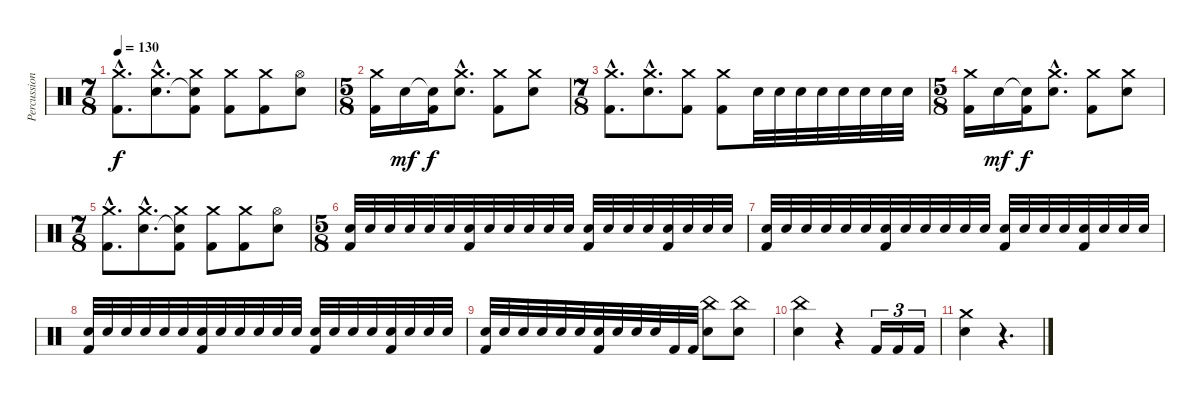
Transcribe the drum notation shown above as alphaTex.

\track ("Percussion" "Percussion") {instrument percussion}
\staff {score}
\articulation defaults
\ts (7 8)
\tempo 130
\clef neutral
\ks c
("Crash medium (hit)"{hac} "Kick (hit) 2"{hac}).8{d dy f} ("Crash medium (hit)"{hac} "Electric Snare (hit)"{hac}).8{d} ("Crash medium (hit)" "Electric Snare (hit)"{t} "Kick (hit) 2").8 ("Crash medium (hit)" "Kick (hit) 2").8 ("Kick (hit) 2" "Crash medium (hit)").8 ("Hi-Hat (open)" "Electric Snare (hit)").8 |
\ts (5 8)
("Crash medium (hit)" "Kick (hit) 2").16 "Electric Snare (hit)".16{dy mf} ("Electric Snare (hit)"{t} "Kick (hit) 2").16{dy f} ("Crash medium (hit)"{hac} "Electric Snare (hit)"{hac}).8{d} ("Crash medium (hit)" "Kick (hit) 2").8 ("Electric Snare (hit)" "Crash medium (hit)").8 |
\ts (7 8)
("Crash medium (hit)"{hac} "Kick (hit) 2"{hac}).8{d} ("Crash medium (hit)"{hac} "Electric Snare (hit)"{hac}).8{d} ("Crash medium (hit)" "Kick (hit) 2").8 ("Crash medium (hit)" "Kick (hit) 2").8 "Electric Snare (hit)".32 "Electric Snare (hit)".32 "Electric Snare (hit)".32 "Electric Snare (hit)".32 "Electric Snare (hit)".32 "Electric Snare (hit)".32 "Electric Snare (hit)".32 "Electric Snare (hit)".32 |
\ts (5 8)
("Crash medium (hit)" "Kick (hit) 2").16 "Electric Snare (hit)".16{dy mf} ("Electric Snare (hit)"{t} "Kick (hit) 2").16{dy f} ("Crash medium (hit)"{hac} "Electric Snare (hit)"{hac}).8{d} ("Crash medium (hit)" "Kick (hit) 2").8 ("Electric Snare (hit)" "Crash medium (hit)").8 |
\ts (7 8)
("Crash medium (hit)"{hac} "Kick (hit) 2"{hac}).8{d} ("Crash medium (hit)"{hac} "Electric Snare (hit)"{hac}).8{d} ("Crash medium (hit)" "Electric Snare (hit)"{t} "Kick (hit) 2").8 ("Crash medium (hit)" "Kick (hit) 2").8 ("Kick (hit) 2" "Crash medium (hit)").8 ("Hi-Hat (open)" "Electric Snare (hit)").8 |
\ts (5 8)
("Kick (hit) 2" "Electric Snare (hit)").32 "Electric Snare (hit)".32 "Electric Snare (hit)".32 "Electric Snare (hit)".32 "Electric Snare (hit)".32 "Electric Snare (hit)".32 ("Kick (hit) 2" "Electric Snare (hit)").32 "Electric Snare (hit)".32 "Electric Snare (hit)".32 "Electric Snare (hit)".32 "Electric Snare (hit)".32 "Electric Snare (hit)".32 ("Kick (hit) 2" "Electric Snare (hit)").32 "Electric Snare (hit)".32 "Electric Snare (hit)".32 "Electric Snare (hit)".32 ("Kick (hit) 2" "Electric Snare (hit)").32 "Electric Snare (hit)".32 "Electric Snare (hit)".32 "Electric Snare (hit)".32 |
("Kick (hit) 2" "Electric Snare (hit)").32 "Electric Snare (hit)".32 "Electric Snare (hit)".32 "Electric Snare (hit)".32 "Electric Snare (hit)".32 "Electric Snare (hit)".32 ("Kick (hit) 2" "Electric Snare (hit)").32 "Electric Snare (hit)".32 "Electric Snare (hit)".32 "Electric Snare (hit)".32 "Electric Snare (hit)".32 "Electric Snare (hit)".32 ("Kick (hit) 2" "Electric Snare (hit)").32 "Electric Snare (hit)".32 "Electric Snare (hit)".32 "Electric Snare (hit)".32 ("Kick (hit) 2" "Electric Snare (hit)").32 "Electric Snare (hit)".32 "Electric Snare (hit)".32 "Electric Snare (hit)".32 |
("Kick (hit) 2" "Electric Snare (hit)").32 "Electric Snare (hit)".32 "Electric Snare (hit)".32 "Electric Snare (hit)".32 "Electric Snare (hit)".32 "Electric Snare (hit)".32 ("Kick (hit) 2" "Electric Snare (hit)").32 "Electric Snare (hit)".32 "Electric Snare (hit)".32 "Electric Snare (hit)".32 "Electric Snare (hit)".32 "Electric Snare (hit)".32 ("Kick (hit) 2" "Electric Snare (hit)").32 "Electric Snare (hit)".32 "Electric Snare (hit)".32 "Electric Snare (hit)".32 ("Kick (hit) 2" "Electric Snare (hit)").32 "Electric Snare (hit)".32 "Electric Snare (hit)".32 "Electric Snare (hit)".32 |
("Kick (hit) 2" "Electric Snare (hit)").32 "Electric Snare (hit)".32 "Electric Snare (hit)".32 "Electric Snare (hit)".32 "Electric Snare (hit)".32 "Electric Snare (hit)".32 ("Kick (hit) 2" "Electric Snare (hit)").32 "Electric Snare (hit)".32 "Electric Snare (hit)".32 "Electric Snare (hit)".32 "Kick (hit) 2".32 "Kick (hit) 2".32 ("China (hit)" "Electric Snare (hit)").8 ("China (hit)" "Electric Snare (hit)").8 |
("China (hit)" "Electric Snare (hit)").4 r.4 "Kick (hit) 2".16{tu (3 2)} "Kick (hit) 2".16{tu (3 2)} "Kick (hit) 2".16{tu (3 2)} |
("Crash medium (hit)" "Electric Snare (hit)").4 r.4{d}
